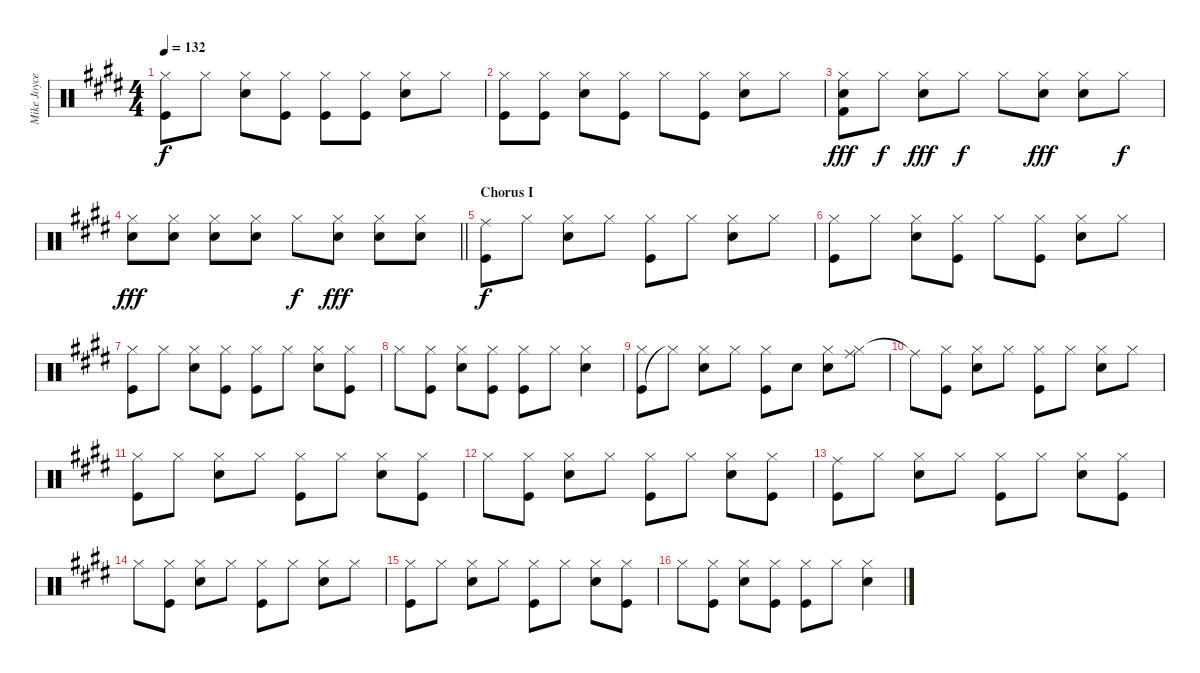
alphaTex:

\track ("Mike Joyce's drums" "Mike Joyce") {instrument percussion}
\staff {score}
\articulation defaults
\ts (4 4)
\tempo 132
\clef neutral
\ks e
("Hi-Hat (closed)" "Kick (hit)").8{dy f} "Hi-Hat (closed)".8 ("Hi-Hat (closed)" "Snare (hit) 2").8 ("Hi-Hat (closed)" "Kick (hit)").8 ("Kick (hit)" "Hi-Hat (closed)").8 ("Kick (hit)" "Hi-Hat (closed)").8 ("Snare (hit) 2" "Hi-Hat (closed)").8 "Hi-Hat (closed)".8 |
("Hi-Hat (closed)" "Kick (hit)").8 ("Kick (hit)" "Hi-Hat (closed)").8 ("Hi-Hat (closed)" "Snare (hit) 2").8 ("Kick (hit)" "Hi-Hat (closed)").8 "Hi-Hat (closed)".8 ("Hi-Hat (closed)" "Kick (hit)").8 ("Snare (hit) 2" "Hi-Hat (closed)").8 "Hi-Hat (closed)".8 |
("Hi-Hat (closed)" "Snare (hit) 2" "Kick (hit) 2").8{dy fff} "Hi-Hat (closed)".8{dy f} ("Hi-Hat (closed)" "Snare (hit) 2").8{dy fff} "Hi-Hat (closed)".8{dy f} "Hi-Hat (closed)".8 ("Hi-Hat (closed)" "Snare (hit) 2").8{dy fff} ("Hi-Hat (closed)" "Snare (hit) 2").8 "Hi-Hat (closed)".8{dy f} |
\barLineRight lightlight
("Hi-Hat (closed)" "Snare (hit) 2").8{dy fff} ("Hi-Hat (closed)" "Snare (hit) 2").8 ("Hi-Hat (closed)" "Snare (hit) 2").8 ("Hi-Hat (closed)" "Snare (hit) 2").8 "Hi-Hat (closed)".8{dy f} ("Hi-Hat (closed)" "Snare (hit) 2").8{dy fff} ("Hi-Hat (closed)" "Snare (hit) 2").8 ("Hi-Hat (closed)" "Snare (hit) 2").8 |
\section ("" "Chorus I")
("Kick (hit)" "Ride (middle)").8{dy f} "Hi-Hat (closed)".8 ("Hi-Hat (closed)" "Snare (hit) 2").8 "Hi-Hat (closed)".8 ("Hi-Hat (closed)" "Kick (hit)").8 "Hi-Hat (closed)".8 ("Snare (hit) 2" "Hi-Hat (closed)").8 "Hi-Hat (closed)".8 |
("Kick (hit)" "Hi-Hat (closed)").8 "Hi-Hat (closed)".8 ("Hi-Hat (closed)" "Snare (hit) 2").8 ("Kick (hit)" "Hi-Hat (closed)").8 "Hi-Hat (closed)".8 ("Hi-Hat (closed)" "Kick (hit)").8 ("Snare (hit) 2" "Hi-Hat (closed)").8 "Hi-Hat (closed)".8 |
("Kick (hit)" "Hi-Hat (closed)").8 "Hi-Hat (closed)".8 ("Hi-Hat (closed)" "Snare (hit) 2").8 ("Kick (hit)" "Hi-Hat (closed)").8 ("Kick (hit)" "Hi-Hat (closed)").8 "Hi-Hat (closed)".8 ("Hi-Hat (closed)" "Snare (hit) 2").8 ("Kick (hit)" "Hi-Hat (closed)").8 |
"Hi-Hat (closed)".8 ("Hi-Hat (closed)" "Kick (hit)").8 ("Snare (hit) 2" "Hi-Hat (closed)").8 ("Kick (hit)" "Hi-Hat (closed)").8 ("Hi-Hat (closed)" "Kick (hit)").8 "Hi-Hat (closed)".8 ("Snare (hit) 2" "Hi-Hat (closed)").4 |
("Kick (hit)" "Hi-Hat (closed)").8 "Hi-Hat (closed)"{t}.8 ("Hi-Hat (closed)" "Snare (hit) 2").8 "Hi-Hat (closed)".8 ("Hi-Hat (closed)" "Kick (hit)").8 "Snare (hit) 2".8 ("Snare (hit) 2" "Hi-Hat (closed)").8 ("Hi-Hat (closed)" "Ride (middle)").8 |
"Ride (middle)"{t}.8 ("Hi-Hat (closed)" "Kick (hit)").8 ("Snare (hit) 2" "Hi-Hat (closed)").8 "Hi-Hat (closed)".8 ("Hi-Hat (closed)" "Kick (hit)").8 "Hi-Hat (closed)".8 ("Snare (hit) 2" "Hi-Hat (closed)").8 "Hi-Hat (closed)".8 |
("Kick (hit)" "Hi-Hat (closed)").8 "Hi-Hat (closed)".8 ("Hi-Hat (closed)" "Snare (hit) 2").8 "Hi-Hat (closed)".8 ("Hi-Hat (closed)" "Kick (hit)").8 "Hi-Hat (closed)".8 ("Hi-Hat (closed)" "Snare (hit) 2").8 ("Kick (hit)" "Hi-Hat (closed)").8 |
"Hi-Hat (closed)".8 ("Kick (hit)" "Hi-Hat (closed)").8 ("Snare (hit) 2" "Hi-Hat (closed)").8 "Hi-Hat (closed)".8 ("Kick (hit)" "Hi-Hat (closed)").8 "Hi-Hat (closed)".8 ("Snare (hit) 2" "Hi-Hat (closed)").8 ("Kick (hit)" "Hi-Hat (closed)").8 |
("Kick (hit)" "Ride (middle)").8 "Hi-Hat (closed)".8 ("Hi-Hat (closed)" "Snare (hit) 2").8 "Hi-Hat (closed)".8 ("Kick (hit)" "Hi-Hat (closed)").8 "Hi-Hat (closed)".8 ("Hi-Hat (closed)" "Snare (hit) 2").8 ("Kick (hit)" "Hi-Hat (closed)").8 |
"Hi-Hat (closed)".8 ("Hi-Hat (closed)" "Kick (hit)").8 ("Snare (hit) 2" "Hi-Hat (closed)").8 "Hi-Hat (closed)".8 ("Hi-Hat (closed)" "Kick (hit)").8 "Hi-Hat (closed)".8 ("Hi-Hat (closed)" "Snare (hit) 2").8 "Hi-Hat (closed)".8 |
("Kick (hit)" "Hi-Hat (closed)").8 "Hi-Hat (closed)".8 ("Hi-Hat (closed)" "Snare (hit) 2").8 "Hi-Hat (closed)".8 ("Hi-Hat (closed)" "Kick (hit)").8 "Hi-Hat (closed)".8 ("Hi-Hat (closed)" "Snare (hit) 2").8 ("Kick (hit)" "Hi-Hat (closed)").8 |
"Hi-Hat (closed)".8 ("Hi-Hat (closed)" "Kick (hit)").8 ("Snare (hit) 2" "Hi-Hat (closed)").8 ("Kick (hit)" "Hi-Hat (closed)").8 ("Hi-Hat (closed)" "Kick (hit)").8 "Hi-Hat (closed)".8 ("Hi-Hat (closed)" "Snare (hit) 2").4
